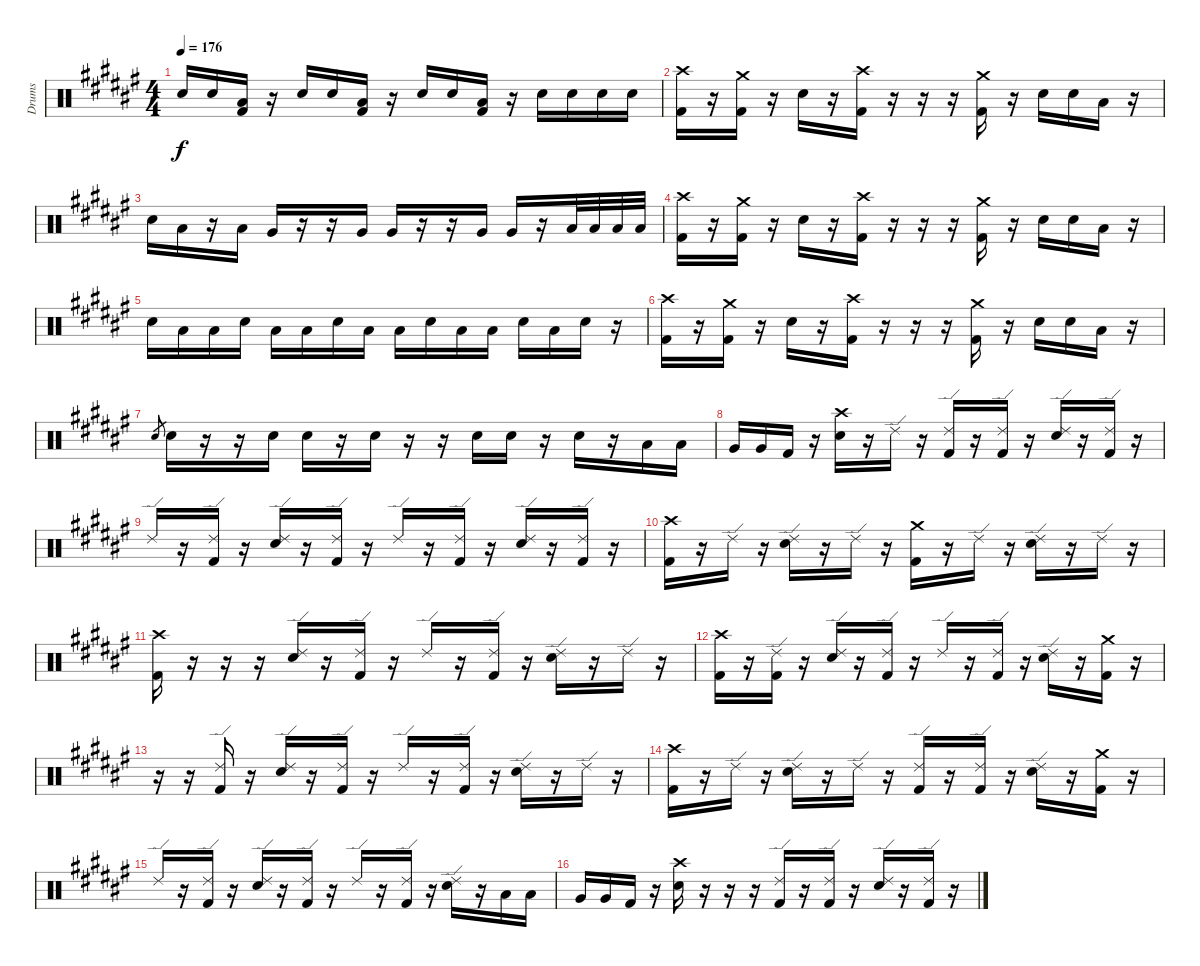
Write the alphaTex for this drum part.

\track ("Drums" "Drums") {instrument percussion}
\staff {score}
\articulation defaults
\ts (4 4)
\tempo 176
\clef neutral
\ks f# "Electric Snare (hit)".16{dy f} "Electric Snare (hit)".16
("Low Tom (hit)" "Kick (hit) 2").16 r.16 "Electric Snare (hit)".16 "Electric Snare (hit)".16 ("Low Tom (hit)" "Kick (hit) 2").16 r.16 "Electric Snare (hit)".16 "Electric Snare (hit)".16 ("Low Tom (hit)" "Kick (hit) 2").16 r.16 "Electric Snare (hit)".16 "Electric Snare (hit)".16 "Electric Snare (hit)".16 "Electric Snare (hit)".16 |
("Crash high (hit)" "Kick (hit) 2").16 r.16 ("Crash medium (hit)" "Kick (hit) 2").16 r.16 "Electric Snare (hit)".16 r.16 ("Crash high (hit)" "Kick (hit) 2").16 r.16 r.16 r.16 ("Crash medium (hit)" "Kick (hit) 2").16 r.16 "Electric Snare (hit)".16 "Electric Snare (hit)".16 "Low Tom (hit)".16 r.16 |
"Electric Snare (hit)".16 "Low Tom (hit)".16 r.16 "Low Tom (hit)".16 "Very Low Tom (hit)".16 r.16 r.16 "Very Low Tom (hit)".16 "Very Low Tom (hit)".16 r.16 r.16 "Very Low Tom (hit)".16 "Very Low Tom (hit)".16 r.16 "Low Floor Tom (hit)".32 "Low Floor Tom (hit)".32 "Low Floor Tom (hit)".32 "Low Floor Tom (hit)".32 |
("Crash high (hit)" "Kick (hit) 2").16 r.16 ("Crash medium (hit)" "Kick (hit) 2").16 r.16 "Electric Snare (hit)".16 r.16 ("Crash high (hit)" "Kick (hit) 2").16 r.16 r.16 r.16 ("Crash medium (hit)" "Kick (hit) 2").16 r.16 "Electric Snare (hit)".16 "Electric Snare (hit)".16 "Low Tom (hit)".16 r.16 |
"Electric Snare (hit)".16 "Low Tom (hit)".16 "Low Tom (hit)".16 "Electric Snare (hit)".16 "Low Tom (hit)".16 "Low Tom (hit)".16 "Electric Snare (hit)".16 "Low Tom (hit)".16 "Low Tom (hit)".16 "Electric Snare (hit)".16 "Low Tom (hit)".16 "Low Tom (hit)".16 "Electric Snare (hit)".16 "Low Tom (hit)".16 "Electric Snare (hit)".16 r.16 |
("Crash high (hit)" "Kick (hit) 2").16 r.16 ("Crash medium (hit)" "Kick (hit) 2").16 r.16 "Electric Snare (hit)".16 r.16 ("Crash high (hit)" "Kick (hit) 2").16 r.16 r.16 r.16 ("Crash medium (hit)" "Kick (hit) 2").16 r.16 "Electric Snare (hit)".16 "Electric Snare (hit)".16 "Low Tom (hit)".16 r.16 |
"Electric Snare (hit)".8{gr} "Electric Snare (hit)".16 r.16 r.16 "Electric Snare (hit)".16 "Electric Snare (hit)".16 r.16 "Electric Snare (hit)".16 r.16 r.16 "Electric Snare (hit)".16 "Electric Snare (hit)".16 r.16 "Electric Snare (hit)".16 r.16 "Low Tom (hit)".16 "Low Tom (hit)".16 |
"Very Low Tom (hit)".16 "Very Low Tom (hit)".16 "Kick (hit) 2".16 r.16 ("Crash high (hit)" "Electric Snare (hit)").16 r.16 "Ride (edge) 2".16 r.16 ("Ride (edge) 2" "Kick (hit) 2").16 r.16 ("Ride (edge) 2" "Kick (hit) 2").16 r.16 ("Ride (edge) 2" "Electric Snare (hit)").16 r.16 ("Ride (edge) 2" "Kick (hit) 2").16 r.16 |
"Ride (edge) 2".16 r.16 ("Ride (edge) 2" "Kick (hit) 2").16 r.16 ("Ride (edge) 2" "Electric Snare (hit)").16 r.16 ("Ride (edge) 2" "Kick (hit) 2").16 r.16 "Ride (edge) 2".16 r.16 ("Ride (edge) 2" "Kick (hit) 2").16 r.16 ("Ride (edge) 2" "Electric Snare (hit)").16 r.16 ("Ride (edge) 2" "Kick (hit) 2").16 r.16 |
("Crash high (hit)" "Kick (hit) 2").16 r.16 "Ride (edge) 2".16 r.16 ("Ride (edge) 2" "Electric Snare (hit)").16 r.16 "Ride (edge) 2".16 r.16 ("Crash medium (hit)" "Kick (hit) 2").16 r.16 "Ride (edge) 2".16 r.16 ("Ride (edge) 2" "Electric Snare (hit)").16 r.16 "Ride (edge) 2".16 r.16 |
("Crash high (hit)" "Kick (hit) 2").16 r.16 r.16 r.16 ("Ride (edge) 2" "Electric Snare (hit)").16 r.16 ("Ride (edge) 2" "Kick (hit) 2").16 r.16 "Ride (edge) 2".16 r.16 ("Ride (edge) 2" "Kick (hit) 2").16 r.16 ("Ride (edge) 2" "Electric Snare (hit)").16 r.16 "Ride (edge) 2".16 r.16 |
("Crash high (hit)" "Kick (hit) 2").16 r.16 ("Ride (edge) 2" "Kick (hit) 2").16 r.16 ("Ride (edge) 2" "Electric Snare (hit)").16 r.16 ("Ride (edge) 2" "Kick (hit) 2").16 r.16 "Ride (edge) 2".16 r.16 ("Ride (edge) 2" "Kick (hit) 2").16 r.16 ("Ride (edge) 2" "Electric Snare (hit)").16 r.16 ("Crash medium (hit)" "Kick (hit) 2").16 r.16 |
r.16 r.16 ("Ride (edge) 2" "Kick (hit) 2").16 r.16 ("Ride (edge) 2" "Electric Snare (hit)").16 r.16 ("Ride (edge) 2" "Kick (hit) 2").16 r.16 "Ride (edge) 2".16 r.16 ("Ride (edge) 2" "Kick (hit) 2").16 r.16 ("Ride (edge) 2" "Electric Snare (hit)").16 r.16 "Ride (edge) 2".16 r.16 |
("Crash high (hit)" "Kick (hit) 2").16 r.16 "Ride (edge) 2".16 r.16 ("Ride (edge) 2" "Electric Snare (hit)").16 r.16 "Ride (edge) 2".16 r.16 ("Ride (edge) 2" "Kick (hit) 2").16 r.16 ("Ride (edge) 2" "Kick (hit) 2").16 r.16 ("Ride (edge) 2" "Electric Snare (hit)").16 r.16 ("Crash medium (hit)" "Kick (hit) 2").16 r.16 |
"Ride (edge) 2".16 r.16 ("Ride (edge) 2" "Kick (hit) 2").16 r.16 ("Ride (edge) 2" "Electric Snare (hit)").16 r.16 ("Ride (edge) 2" "Kick (hit) 2").16 r.16 "Ride (edge) 2".16 r.16 ("Ride (edge) 2" "Kick (hit) 2").16 r.16 ("Ride (edge) 2" "Electric Snare (hit)").16 r.16 "Low Tom (hit)".16 "Low Tom (hit)".16 |
"Very Low Tom (hit)".16 "Very Low Tom (hit)".16 "Kick (hit) 2".16 r.16 ("Crash high (hit)" "Electric Snare (hit)").16 r.16 r.16 r.16 ("Ride (edge) 2" "Kick (hit) 2").16 r.16 ("Ride (edge) 2" "Kick (hit) 2").16 r.16 ("Ride (edge) 2" "Electric Snare (hit)").16 r.16 ("Ride (edge) 2" "Kick (hit) 2").16 r.16
